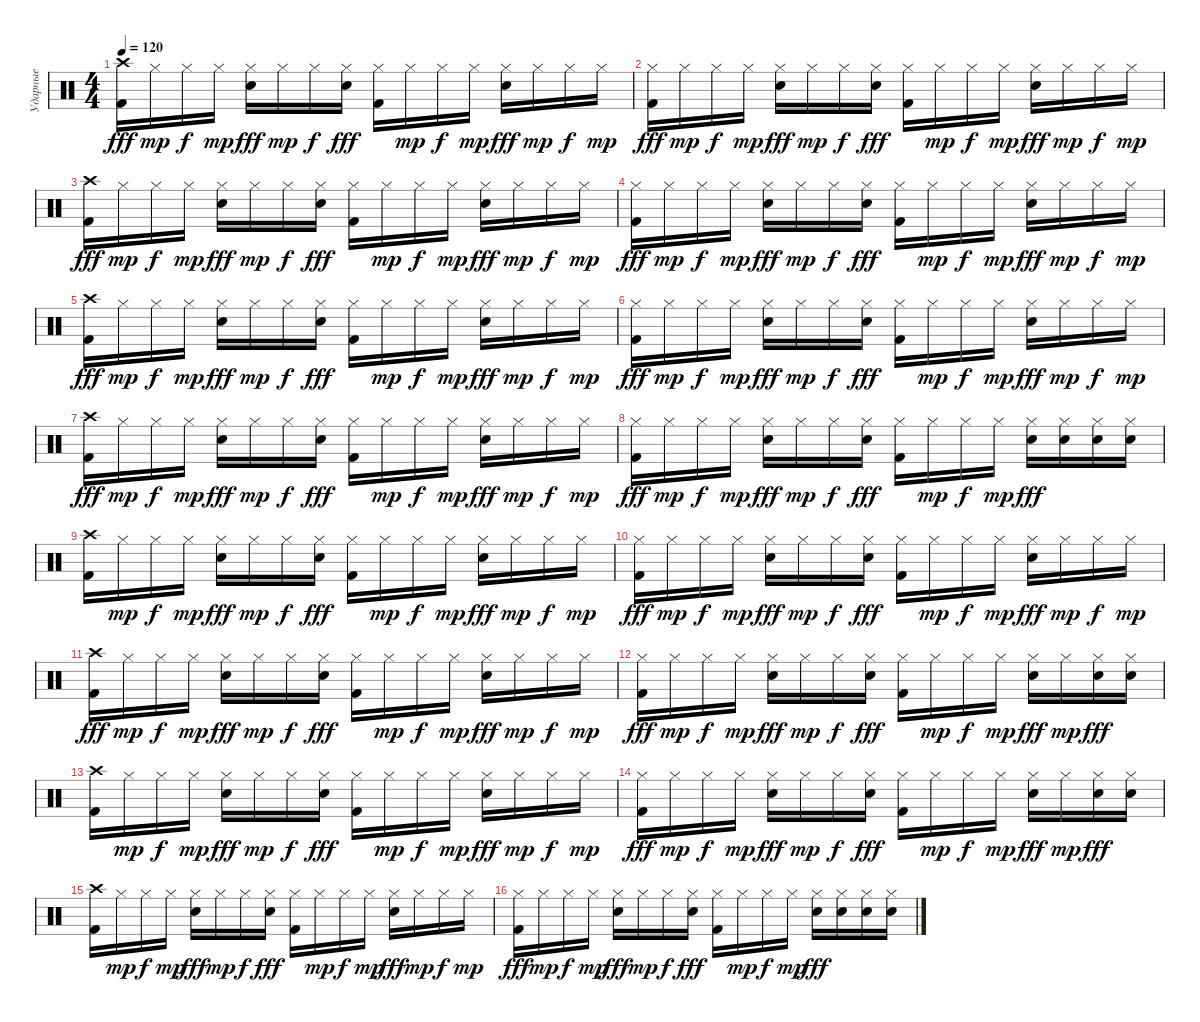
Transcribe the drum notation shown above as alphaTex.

\track ("Ударные" "Ударные") {instrument percussion}
\staff {score}
\articulation defaults
\ts (4 4)
\tempo 120
\clef neutral
\ks c
("Crash high (hit)" "Kick (hit) 2").16{dy fff} "Hi-Hat (closed)".16{dy mp} "Hi-Hat (closed)".16{dy f} "Hi-Hat (closed)".16{dy mp} ("Hi-Hat (closed)" "Electric Snare (hit)").16{dy fff} "Hi-Hat (closed)".16{dy mp} "Hi-Hat (closed)".16{dy f} ("Hi-Hat (closed)" "Electric Snare (hit)").16{dy fff} ("Hi-Hat (closed)" "Kick (hit) 2").16 "Hi-Hat (closed)".16{dy mp} "Hi-Hat (closed)".16{dy f} "Hi-Hat (closed)".16{dy mp} ("Hi-Hat (closed)" "Electric Snare (hit)").16{dy fff} "Hi-Hat (closed)".16{dy mp} "Hi-Hat (closed)".16{dy f} "Hi-Hat (closed)".16{dy mp} |
("Hi-Hat (closed)" "Kick (hit) 2").16{dy fff} "Hi-Hat (closed)".16{dy mp} "Hi-Hat (closed)".16{dy f} "Hi-Hat (closed)".16{dy mp} ("Hi-Hat (closed)" "Electric Snare (hit)").16{dy fff} "Hi-Hat (closed)".16{dy mp} "Hi-Hat (closed)".16{dy f} ("Hi-Hat (closed)" "Electric Snare (hit)").16{dy fff} ("Hi-Hat (closed)" "Kick (hit) 2").16 "Hi-Hat (closed)".16{dy mp} "Hi-Hat (closed)".16{dy f} "Hi-Hat (closed)".16{dy mp} ("Hi-Hat (closed)" "Electric Snare (hit)").16{dy fff} "Hi-Hat (closed)".16{dy mp} "Hi-Hat (closed)".16{dy f} "Hi-Hat (closed)".16{dy mp} |
("Crash high (hit)" "Kick (hit) 2").16{dy fff} "Hi-Hat (closed)".16{dy mp} "Hi-Hat (closed)".16{dy f} "Hi-Hat (closed)".16{dy mp} ("Hi-Hat (closed)" "Electric Snare (hit)").16{dy fff} "Hi-Hat (closed)".16{dy mp} "Hi-Hat (closed)".16{dy f} ("Hi-Hat (closed)" "Electric Snare (hit)").16{dy fff} ("Hi-Hat (closed)" "Kick (hit) 2").16 "Hi-Hat (closed)".16{dy mp} "Hi-Hat (closed)".16{dy f} "Hi-Hat (closed)".16{dy mp} ("Hi-Hat (closed)" "Electric Snare (hit)").16{dy fff} "Hi-Hat (closed)".16{dy mp} "Hi-Hat (closed)".16{dy f} "Hi-Hat (closed)".16{dy mp} |
("Hi-Hat (closed)" "Kick (hit) 2").16{dy fff} "Hi-Hat (closed)".16{dy mp} "Hi-Hat (closed)".16{dy f} "Hi-Hat (closed)".16{dy mp} ("Hi-Hat (closed)" "Electric Snare (hit)").16{dy fff} "Hi-Hat (closed)".16{dy mp} "Hi-Hat (closed)".16{dy f} ("Hi-Hat (closed)" "Electric Snare (hit)").16{dy fff} ("Hi-Hat (closed)" "Kick (hit) 2").16 "Hi-Hat (closed)".16{dy mp} "Hi-Hat (closed)".16{dy f} "Hi-Hat (closed)".16{dy mp} ("Hi-Hat (closed)" "Electric Snare (hit)").16{dy fff} "Hi-Hat (closed)".16{dy mp} "Hi-Hat (closed)".16{dy f} "Hi-Hat (closed)".16{dy mp} |
("Crash high (hit)" "Kick (hit) 2").16{dy fff} "Hi-Hat (closed)".16{dy mp} "Hi-Hat (closed)".16{dy f} "Hi-Hat (closed)".16{dy mp} ("Hi-Hat (closed)" "Electric Snare (hit)").16{dy fff} "Hi-Hat (closed)".16{dy mp} "Hi-Hat (closed)".16{dy f} ("Hi-Hat (closed)" "Electric Snare (hit)").16{dy fff} ("Hi-Hat (closed)" "Kick (hit) 2").16 "Hi-Hat (closed)".16{dy mp} "Hi-Hat (closed)".16{dy f} "Hi-Hat (closed)".16{dy mp} ("Hi-Hat (closed)" "Electric Snare (hit)").16{dy fff} "Hi-Hat (closed)".16{dy mp} "Hi-Hat (closed)".16{dy f} "Hi-Hat (closed)".16{dy mp} |
("Hi-Hat (closed)" "Kick (hit) 2").16{dy fff} "Hi-Hat (closed)".16{dy mp} "Hi-Hat (closed)".16{dy f} "Hi-Hat (closed)".16{dy mp} ("Hi-Hat (closed)" "Electric Snare (hit)").16{dy fff} "Hi-Hat (closed)".16{dy mp} "Hi-Hat (closed)".16{dy f} ("Hi-Hat (closed)" "Electric Snare (hit)").16{dy fff} ("Hi-Hat (closed)" "Kick (hit) 2").16 "Hi-Hat (closed)".16{dy mp} "Hi-Hat (closed)".16{dy f} "Hi-Hat (closed)".16{dy mp} ("Hi-Hat (closed)" "Electric Snare (hit)").16{dy fff} "Hi-Hat (closed)".16{dy mp} "Hi-Hat (closed)".16{dy f} "Hi-Hat (closed)".16{dy mp} |
("Crash high (hit)" "Kick (hit) 2").16{dy fff} "Hi-Hat (closed)".16{dy mp} "Hi-Hat (closed)".16{dy f} "Hi-Hat (closed)".16{dy mp} ("Hi-Hat (closed)" "Electric Snare (hit)").16{dy fff} "Hi-Hat (closed)".16{dy mp} "Hi-Hat (closed)".16{dy f} ("Hi-Hat (closed)" "Electric Snare (hit)").16{dy fff} ("Hi-Hat (closed)" "Kick (hit) 2").16 "Hi-Hat (closed)".16{dy mp} "Hi-Hat (closed)".16{dy f} "Hi-Hat (closed)".16{dy mp} ("Hi-Hat (closed)" "Electric Snare (hit)").16{dy fff} "Hi-Hat (closed)".16{dy mp} "Hi-Hat (closed)".16{dy f} "Hi-Hat (closed)".16{dy mp} |
("Hi-Hat (closed)" "Kick (hit) 2").16{dy fff} "Hi-Hat (closed)".16{dy mp} "Hi-Hat (closed)".16{dy f} "Hi-Hat (closed)".16{dy mp} ("Hi-Hat (closed)" "Electric Snare (hit)").16{dy fff} "Hi-Hat (closed)".16{dy mp} "Hi-Hat (closed)".16{dy f} ("Hi-Hat (closed)" "Electric Snare (hit)").16{dy fff} ("Hi-Hat (closed)" "Kick (hit) 2").16 "Hi-Hat (closed)".16{dy mp} "Hi-Hat (closed)".16{dy f} "Hi-Hat (closed)".16{dy mp} ("Hi-Hat (closed)" "Electric Snare (hit)").16{dy fff} ("Hi-Hat (closed)" "Electric Snare (hit)").16 ("Hi-Hat (closed)" "Electric Snare (hit)").16 ("Hi-Hat (closed)" "Electric Snare (hit)").16 |
("Crash high (hit)" "Kick (hit) 2").16 "Hi-Hat (closed)".16{dy mp} "Hi-Hat (closed)".16{dy f} "Hi-Hat (closed)".16{dy mp} ("Hi-Hat (closed)" "Electric Snare (hit)").16{dy fff} "Hi-Hat (closed)".16{dy mp} "Hi-Hat (closed)".16{dy f} ("Hi-Hat (closed)" "Electric Snare (hit)").16{dy fff} ("Hi-Hat (closed)" "Kick (hit) 2").16 "Hi-Hat (closed)".16{dy mp} "Hi-Hat (closed)".16{dy f} "Hi-Hat (closed)".16{dy mp} ("Hi-Hat (closed)" "Electric Snare (hit)").16{dy fff} "Hi-Hat (closed)".16{dy mp} "Hi-Hat (closed)".16{dy f} "Hi-Hat (closed)".16{dy mp} |
("Hi-Hat (closed)" "Kick (hit) 2").16{dy fff} "Hi-Hat (closed)".16{dy mp} "Hi-Hat (closed)".16{dy f} "Hi-Hat (closed)".16{dy mp} ("Hi-Hat (closed)" "Electric Snare (hit)").16{dy fff} "Hi-Hat (closed)".16{dy mp} "Hi-Hat (closed)".16{dy f} ("Hi-Hat (closed)" "Electric Snare (hit)").16{dy fff} ("Hi-Hat (closed)" "Kick (hit) 2").16 "Hi-Hat (closed)".16{dy mp} "Hi-Hat (closed)".16{dy f} "Hi-Hat (closed)".16{dy mp} ("Hi-Hat (closed)" "Electric Snare (hit)").16{dy fff} "Hi-Hat (closed)".16{dy mp} "Hi-Hat (closed)".16{dy f} "Hi-Hat (closed)".16{dy mp} |
("Crash high (hit)" "Kick (hit) 2").16{dy fff} "Hi-Hat (closed)".16{dy mp} "Hi-Hat (closed)".16{dy f} "Hi-Hat (closed)".16{dy mp} ("Hi-Hat (closed)" "Electric Snare (hit)").16{dy fff} "Hi-Hat (closed)".16{dy mp} "Hi-Hat (closed)".16{dy f} ("Hi-Hat (closed)" "Electric Snare (hit)").16{dy fff} ("Hi-Hat (closed)" "Kick (hit) 2").16 "Hi-Hat (closed)".16{dy mp} "Hi-Hat (closed)".16{dy f} "Hi-Hat (closed)".16{dy mp} ("Hi-Hat (closed)" "Electric Snare (hit)").16{dy fff} "Hi-Hat (closed)".16{dy mp} "Hi-Hat (closed)".16{dy f} "Hi-Hat (closed)".16{dy mp} |
("Hi-Hat (closed)" "Kick (hit) 2").16{dy fff} "Hi-Hat (closed)".16{dy mp} "Hi-Hat (closed)".16{dy f} "Hi-Hat (closed)".16{dy mp} ("Hi-Hat (closed)" "Electric Snare (hit)").16{dy fff} "Hi-Hat (closed)".16{dy mp} "Hi-Hat (closed)".16{dy f} ("Hi-Hat (closed)" "Electric Snare (hit)").16{dy fff} ("Hi-Hat (closed)" "Kick (hit) 2").16 "Hi-Hat (closed)".16{dy mp} "Hi-Hat (closed)".16{dy f} "Hi-Hat (closed)".16{dy mp} ("Hi-Hat (closed)" "Electric Snare (hit)").16{dy fff} "Hi-Hat (closed)".16{dy mp} ("Hi-Hat (closed)" "Electric Snare (hit)").16{dy fff} ("Hi-Hat (closed)" "Electric Snare (hit)").16 |
("Crash high (hit)" "Kick (hit) 2").16 "Hi-Hat (closed)".16{dy mp} "Hi-Hat (closed)".16{dy f} "Hi-Hat (closed)".16{dy mp} ("Hi-Hat (closed)" "Electric Snare (hit)").16{dy fff} "Hi-Hat (closed)".16{dy mp} "Hi-Hat (closed)".16{dy f} ("Hi-Hat (closed)" "Electric Snare (hit)").16{dy fff} ("Hi-Hat (closed)" "Kick (hit) 2").16 "Hi-Hat (closed)".16{dy mp} "Hi-Hat (closed)".16{dy f} "Hi-Hat (closed)".16{dy mp} ("Hi-Hat (closed)" "Electric Snare (hit)").16{dy fff} "Hi-Hat (closed)".16{dy mp} "Hi-Hat (closed)".16{dy f} "Hi-Hat (closed)".16{dy mp} |
("Hi-Hat (closed)" "Kick (hit) 2").16{dy fff} "Hi-Hat (closed)".16{dy mp} "Hi-Hat (closed)".16{dy f} "Hi-Hat (closed)".16{dy mp} ("Hi-Hat (closed)" "Electric Snare (hit)").16{dy fff} "Hi-Hat (closed)".16{dy mp} "Hi-Hat (closed)".16{dy f} ("Hi-Hat (closed)" "Electric Snare (hit)").16{dy fff} ("Hi-Hat (closed)" "Kick (hit) 2").16 "Hi-Hat (closed)".16{dy mp} "Hi-Hat (closed)".16{dy f} "Hi-Hat (closed)".16{dy mp} ("Hi-Hat (closed)" "Electric Snare (hit)").16{dy fff} "Hi-Hat (closed)".16{dy mp} ("Hi-Hat (closed)" "Electric Snare (hit)").16{dy fff} ("Hi-Hat (closed)" "Electric Snare (hit)").16 |
("Crash high (hit)" "Kick (hit) 2").16 "Hi-Hat (closed)".16{dy mp} "Hi-Hat (closed)".16{dy f} "Hi-Hat (closed)".16{dy mp} ("Hi-Hat (closed)" "Electric Snare (hit)").16{dy fff} "Hi-Hat (closed)".16{dy mp} "Hi-Hat (closed)".16{dy f} ("Hi-Hat (closed)" "Electric Snare (hit)").16{dy fff} ("Hi-Hat (closed)" "Kick (hit) 2").16 "Hi-Hat (closed)".16{dy mp} "Hi-Hat (closed)".16{dy f} "Hi-Hat (closed)".16{dy mp} ("Hi-Hat (closed)" "Electric Snare (hit)").16{dy fff} "Hi-Hat (closed)".16{dy mp} "Hi-Hat (closed)".16{dy f} "Hi-Hat (closed)".16{dy mp} |
("Hi-Hat (closed)" "Kick (hit) 2").16{dy fff} "Hi-Hat (closed)".16{dy mp} "Hi-Hat (closed)".16{dy f} "Hi-Hat (closed)".16{dy mp} ("Hi-Hat (closed)" "Electric Snare (hit)").16{dy fff} "Hi-Hat (closed)".16{dy mp} "Hi-Hat (closed)".16{dy f} ("Hi-Hat (closed)" "Electric Snare (hit)").16{dy fff} ("Hi-Hat (closed)" "Kick (hit) 2").16 "Hi-Hat (closed)".16{dy mp} "Hi-Hat (closed)".16{dy f} "Hi-Hat (closed)".16{dy mp} ("Hi-Hat (closed)" "Electric Snare (hit)").16{dy fff} ("Hi-Hat (closed)" "Electric Snare (hit)").16 ("Hi-Hat (closed)" "Electric Snare (hit)").16 ("Hi-Hat (closed)" "Electric Snare (hit)").16
